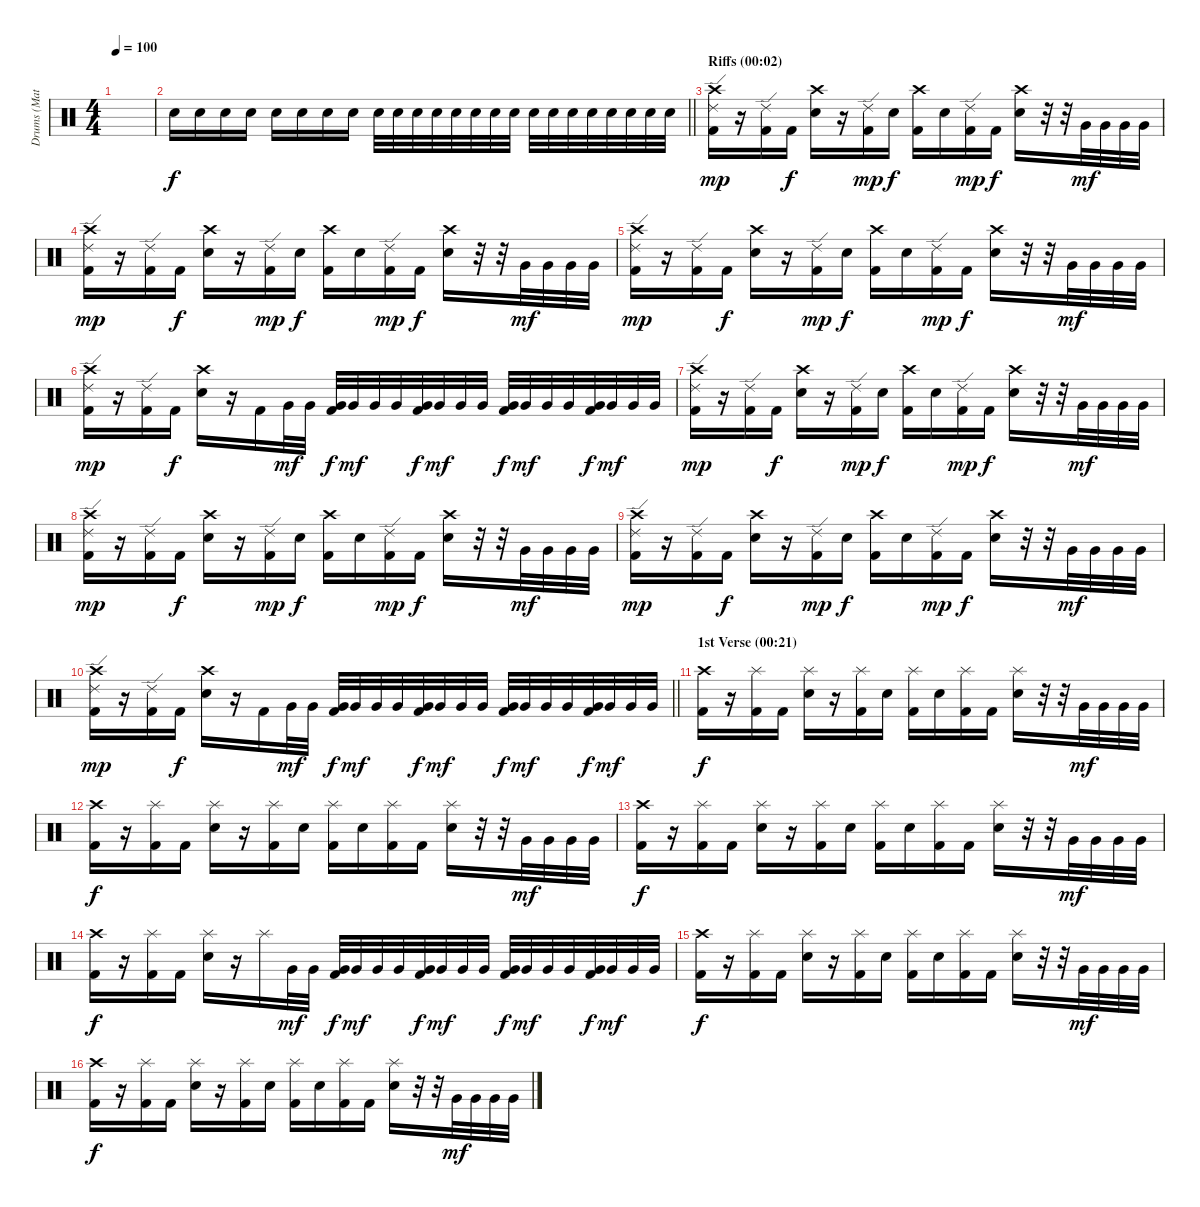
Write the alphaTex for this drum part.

\track ("Drums (Matt Sorum)" "Drums (Mat") {instrument percussion}
\staff {score}
\articulation defaults
\ts (4 4)
\tempo 100
\clef neutral
\ks c
|
\barLineRight lightlight "Electric Snare (hit)".16 "Electric Snare (hit)".16 "Electric Snare (hit)".16 "Electric Snare (hit)".16 "Electric Snare (hit)".16 "Electric Snare (hit)".16 "Electric Snare (hit)".16 "Electric Snare (hit)".16 "Electric Snare (hit)".32 "Electric Snare (hit)".32 "Electric Snare (hit)".32 "Electric Snare (hit)".32 "Electric Snare (hit)".32 "Electric Snare (hit)".32 "Electric Snare (hit)".32 "Electric Snare (hit)".32 "Electric Snare (hit)".32 "Electric Snare (hit)".32 "Electric Snare (hit)".32 "Electric Snare (hit)".32 "Electric Snare (hit)".32 "Electric Snare (hit)".32 "Electric Snare (hit)".32 "Electric Snare (hit)".32
|
\section ("" "Riffs (00:02)")
("Crash high (hit)" "Ride (edge) 2" "Kick (hit) 2").16{dy mp} r.16 ("Ride (edge) 2" "Kick (hit) 2").16 "Kick (hit) 2".16{dy f} ("Crash high (hit)" "Electric Snare (hit)").16 r.16 ("Ride (edge) 2" "Kick (hit) 2").16{dy mp} "Electric Snare (hit)".16{dy f} ("Crash high (hit)" "Kick (hit) 2").16 "Electric Snare (hit)".16 ("Ride (edge) 2" "Kick (hit) 2").16{dy mp} "Kick (hit) 2".16{dy f} ("Crash high (hit)" "Electric Snare (hit)").16 r.32 r.32 "Very Low Tom (hit)".32{dy mf} "Very Low Tom (hit)".32 "Very Low Tom (hit)".32 "Very Low Tom (hit)".32 |
("Crash high (hit)" "Ride (edge) 2" "Kick (hit) 2").16{dy mp} r.16 ("Ride (edge) 2" "Kick (hit) 2").16 "Kick (hit) 2".16{dy f} ("Crash high (hit)" "Electric Snare (hit)").16 r.16 ("Ride (edge) 2" "Kick (hit) 2").16{dy mp} "Electric Snare (hit)".16{dy f} ("Crash high (hit)" "Kick (hit) 2").16 "Electric Snare (hit)".16 ("Ride (edge) 2" "Kick (hit) 2").16{dy mp} "Kick (hit) 2".16{dy f} ("Crash high (hit)" "Electric Snare (hit)").16 r.32 r.32 "Very Low Tom (hit)".32{dy mf} "Very Low Tom (hit)".32 "Very Low Tom (hit)".32 "Very Low Tom (hit)".32 |
("Crash high (hit)" "Ride (edge) 2" "Kick (hit) 2").16{dy mp} r.16 ("Ride (edge) 2" "Kick (hit) 2").16 "Kick (hit) 2".16{dy f} ("Crash high (hit)" "Electric Snare (hit)").16 r.16 ("Ride (edge) 2" "Kick (hit) 2").16{dy mp} "Electric Snare (hit)".16{dy f} ("Crash high (hit)" "Kick (hit) 2").16 "Electric Snare (hit)".16 ("Ride (edge) 2" "Kick (hit) 2").16{dy mp} "Kick (hit) 2".16{dy f} ("Crash high (hit)" "Electric Snare (hit)").16 r.32 r.32 "Very Low Tom (hit)".32{dy mf} "Very Low Tom (hit)".32 "Very Low Tom (hit)".32 "Very Low Tom (hit)".32 |
("Crash high (hit)" "Ride (edge) 2" "Kick (hit) 2").16{dy mp} r.16 ("Ride (edge) 2" "Kick (hit) 2").16 "Kick (hit) 2".16{dy f} ("Crash high (hit)" "Electric Snare (hit)").16 r.16 "Kick (hit) 2".16 "Very Low Tom (hit)".32{dy mf} "Very Low Tom (hit)".32 ("Very Low Tom (hit)" "Kick (hit) 2").32{dy f} "Very Low Tom (hit)".32{dy mf} "Very Low Tom (hit)".32 "Very Low Tom (hit)".32 ("Very Low Tom (hit)" "Kick (hit) 2").32{dy f} "Very Low Tom (hit)".32{dy mf} "Very Low Tom (hit)".32 "Very Low Tom (hit)".32 ("Very Low Tom (hit)" "Kick (hit) 2").32{dy f} "Very Low Tom (hit)".32{dy mf} "Very Low Tom (hit)".32 "Very Low Tom (hit)".32 ("Very Low Tom (hit)" "Kick (hit) 2").32{dy f} "Very Low Tom (hit)".32{dy mf} "Very Low Tom (hit)".32 "Very Low Tom (hit)".32 |
("Crash high (hit)" "Ride (edge) 2" "Kick (hit) 2").16{dy mp} r.16 ("Ride (edge) 2" "Kick (hit) 2").16 "Kick (hit) 2".16{dy f} ("Crash high (hit)" "Electric Snare (hit)").16 r.16 ("Ride (edge) 2" "Kick (hit) 2").16{dy mp} "Electric Snare (hit)".16{dy f} ("Crash high (hit)" "Kick (hit) 2").16 "Electric Snare (hit)".16 ("Ride (edge) 2" "Kick (hit) 2").16{dy mp} "Kick (hit) 2".16{dy f} ("Crash high (hit)" "Electric Snare (hit)").16 r.32 r.32 "Very Low Tom (hit)".32{dy mf} "Very Low Tom (hit)".32 "Very Low Tom (hit)".32 "Very Low Tom (hit)".32 |
("Crash high (hit)" "Ride (edge) 2" "Kick (hit) 2").16{dy mp} r.16 ("Ride (edge) 2" "Kick (hit) 2").16 "Kick (hit) 2".16{dy f} ("Crash high (hit)" "Electric Snare (hit)").16 r.16 ("Ride (edge) 2" "Kick (hit) 2").16{dy mp} "Electric Snare (hit)".16{dy f} ("Crash high (hit)" "Kick (hit) 2").16 "Electric Snare (hit)".16 ("Ride (edge) 2" "Kick (hit) 2").16{dy mp} "Kick (hit) 2".16{dy f} ("Crash high (hit)" "Electric Snare (hit)").16 r.32 r.32 "Very Low Tom (hit)".32{dy mf} "Very Low Tom (hit)".32 "Very Low Tom (hit)".32 "Very Low Tom (hit)".32 |
("Crash high (hit)" "Ride (edge) 2" "Kick (hit) 2").16{dy mp} r.16 ("Ride (edge) 2" "Kick (hit) 2").16 "Kick (hit) 2".16{dy f} ("Crash high (hit)" "Electric Snare (hit)").16 r.16 ("Ride (edge) 2" "Kick (hit) 2").16{dy mp} "Electric Snare (hit)".16{dy f} ("Crash high (hit)" "Kick (hit) 2").16 "Electric Snare (hit)".16 ("Ride (edge) 2" "Kick (hit) 2").16{dy mp} "Kick (hit) 2".16{dy f} ("Crash high (hit)" "Electric Snare (hit)").16 r.32 r.32 "Very Low Tom (hit)".32{dy mf} "Very Low Tom (hit)".32 "Very Low Tom (hit)".32 "Very Low Tom (hit)".32 |
\barLineRight lightlight
("Crash high (hit)" "Ride (edge) 2" "Kick (hit) 2").16{dy mp} r.16 ("Ride (edge) 2" "Kick (hit) 2").16 "Kick (hit) 2".16{dy f} ("Crash high (hit)" "Electric Snare (hit)").16 r.16 "Kick (hit) 2".16 "Very Low Tom (hit)".32{dy mf} "Very Low Tom (hit)".32 ("Very Low Tom (hit)" "Kick (hit) 2").32{dy f} "Very Low Tom (hit)".32{dy mf} "Very Low Tom (hit)".32 "Very Low Tom (hit)".32 ("Very Low Tom (hit)" "Kick (hit) 2").32{dy f} "Very Low Tom (hit)".32{dy mf} "Very Low Tom (hit)".32 "Very Low Tom (hit)".32 ("Very Low Tom (hit)" "Kick (hit) 2").32{dy f} "Very Low Tom (hit)".32{dy mf} "Very Low Tom (hit)".32 "Very Low Tom (hit)".32 ("Very Low Tom (hit)" "Kick (hit) 2").32{dy f} "Very Low Tom (hit)".32{dy mf} "Very Low Tom (hit)".32 "Very Low Tom (hit)".32 |
\section ("" "1st Verse (00:21)")
("Crash high (hit)" "Kick (hit) 2").16{dy f} r.16 ("Splash (hit)" "Kick (hit) 2").16 "Kick (hit) 2".16 ("Splash (hit)" "Electric Snare (hit)").16 r.16 ("Splash (hit)" "Kick (hit) 2").16 "Electric Snare (hit)".16 ("Splash (hit)" "Kick (hit) 2").16 "Electric Snare (hit)".16 ("Splash (hit)" "Kick (hit) 2").16 "Kick (hit) 2".16 ("Splash (hit)" "Electric Snare (hit)").16 r.32 r.32 "Very Low Tom (hit)".32{dy mf} "Very Low Tom (hit)".32 "Very Low Tom (hit)".32 "Very Low Tom (hit)".32 |
("Crash high (hit)" "Kick (hit) 2").16{dy f} r.16 ("Splash (hit)" "Kick (hit) 2").16 "Kick (hit) 2".16 ("Splash (hit)" "Electric Snare (hit)").16 r.16 ("Splash (hit)" "Kick (hit) 2").16 "Electric Snare (hit)".16 ("Splash (hit)" "Kick (hit) 2").16 "Electric Snare (hit)".16 ("Splash (hit)" "Kick (hit) 2").16 "Kick (hit) 2".16 ("Splash (hit)" "Electric Snare (hit)").16 r.32 r.32 "Very Low Tom (hit)".32{dy mf} "Very Low Tom (hit)".32 "Very Low Tom (hit)".32 "Very Low Tom (hit)".32 |
("Crash high (hit)" "Kick (hit) 2").16{dy f} r.16 ("Splash (hit)" "Kick (hit) 2").16 "Kick (hit) 2".16 ("Splash (hit)" "Electric Snare (hit)").16 r.16 ("Splash (hit)" "Kick (hit) 2").16 "Electric Snare (hit)".16 ("Splash (hit)" "Kick (hit) 2").16 "Electric Snare (hit)".16 ("Splash (hit)" "Kick (hit) 2").16 "Kick (hit) 2".16 ("Splash (hit)" "Electric Snare (hit)").16 r.32 r.32 "Very Low Tom (hit)".32{dy mf} "Very Low Tom (hit)".32 "Very Low Tom (hit)".32 "Very Low Tom (hit)".32 |
("Crash high (hit)" "Kick (hit) 2").16{dy f} r.16 ("Splash (hit)" "Kick (hit) 2").16 "Kick (hit) 2".16 ("Splash (hit)" "Electric Snare (hit)").16 r.16 "Splash (hit)".16 "Very Low Tom (hit)".32{dy mf} "Very Low Tom (hit)".32 ("Very Low Tom (hit)" "Kick (hit) 2").32{dy f} "Very Low Tom (hit)".32{dy mf} "Very Low Tom (hit)".32 "Very Low Tom (hit)".32 ("Very Low Tom (hit)" "Kick (hit) 2").32{dy f} "Very Low Tom (hit)".32{dy mf} "Very Low Tom (hit)".32 "Very Low Tom (hit)".32 ("Very Low Tom (hit)" "Kick (hit) 2").32{dy f} "Very Low Tom (hit)".32{dy mf} "Very Low Tom (hit)".32 "Very Low Tom (hit)".32 ("Very Low Tom (hit)" "Kick (hit) 2").32{dy f} "Very Low Tom (hit)".32{dy mf} "Very Low Tom (hit)".32 "Very Low Tom (hit)".32 |
("Crash high (hit)" "Kick (hit) 2").16{dy f} r.16 ("Splash (hit)" "Kick (hit) 2").16 "Kick (hit) 2".16 ("Splash (hit)" "Electric Snare (hit)").16 r.16 ("Splash (hit)" "Kick (hit) 2").16 "Electric Snare (hit)".16 ("Splash (hit)" "Kick (hit) 2").16 "Electric Snare (hit)".16 ("Splash (hit)" "Kick (hit) 2").16 "Kick (hit) 2".16 ("Splash (hit)" "Electric Snare (hit)").16 r.32 r.32 "Very Low Tom (hit)".32{dy mf} "Very Low Tom (hit)".32 "Very Low Tom (hit)".32 "Very Low Tom (hit)".32 |
("Crash high (hit)" "Kick (hit) 2").16{dy f} r.16 ("Splash (hit)" "Kick (hit) 2").16 "Kick (hit) 2".16 ("Splash (hit)" "Electric Snare (hit)").16 r.16 ("Splash (hit)" "Kick (hit) 2").16 "Electric Snare (hit)".16 ("Splash (hit)" "Kick (hit) 2").16 "Electric Snare (hit)".16 ("Splash (hit)" "Kick (hit) 2").16 "Kick (hit) 2".16 ("Splash (hit)" "Electric Snare (hit)").16 r.32 r.32 "Very Low Tom (hit)".32{dy mf} "Very Low Tom (hit)".32 "Very Low Tom (hit)".32 "Very Low Tom (hit)".32
